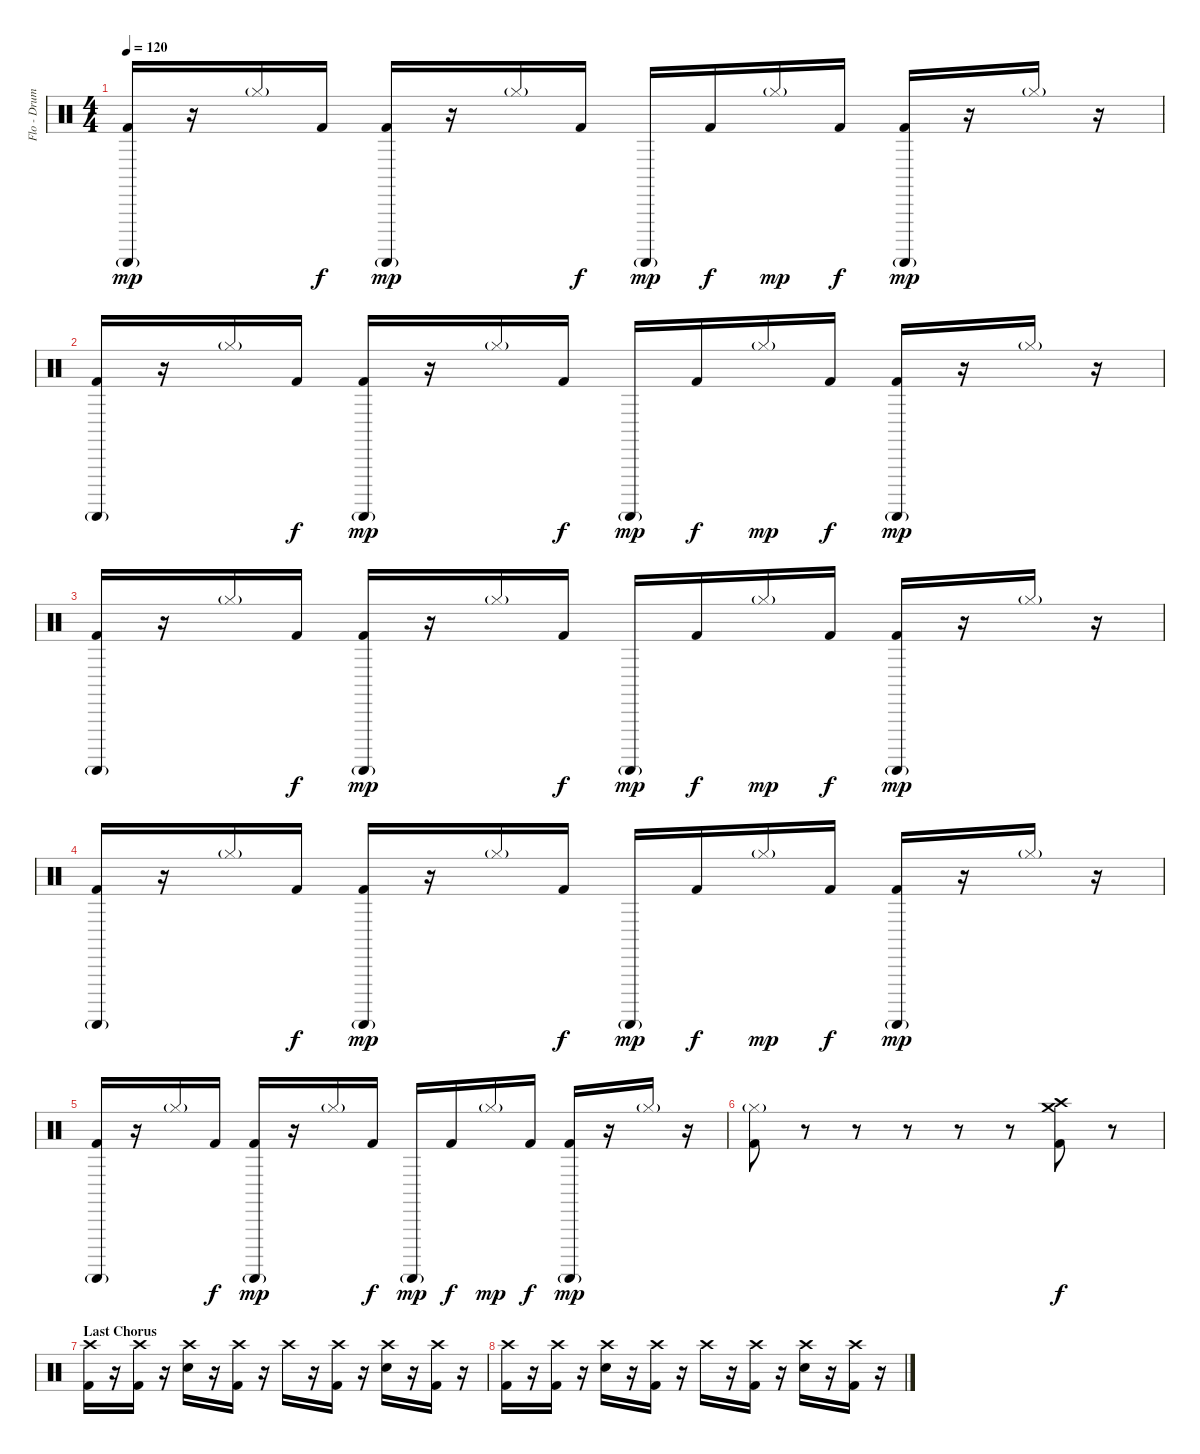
\track ("Flo - Drums" "Flo - Drum") {instrument percussion}
\staff {score}
\articulation defaults
\ts (4 4)
\tempo 120
\clef neutral
\ks c
("Guiro (scrap-return)"{g} "Kick (hit) 2").16{dy mp} r.16 "Hi-Hat (closed)"{g}.16 "Kick (hit) 2".16{dy f} ("Guiro (scrap-return)"{g} "Kick (hit) 2").16{dy mp} r.16 "Hi-Hat (closed)"{g}.16 "Kick (hit) 2".16{dy f} "Guiro (scrap-return)"{g}.16{dy mp} "Kick (hit) 2".16{dy f} "Hi-Hat (closed)"{g}.16{dy mp} "Kick (hit) 2".16{dy f} ("Guiro (scrap-return)"{g} "Kick (hit) 2").16{dy mp} r.16 "Hi-Hat (closed)"{g}.16 r.16 |
("Guiro (scrap-return)"{g} "Kick (hit) 2").16 r.16 "Hi-Hat (closed)"{g}.16 "Kick (hit) 2".16{dy f} ("Guiro (scrap-return)"{g} "Kick (hit) 2").16{dy mp} r.16 "Hi-Hat (closed)"{g}.16 "Kick (hit) 2".16{dy f} "Guiro (scrap-return)"{g}.16{dy mp} "Kick (hit) 2".16{dy f} "Hi-Hat (closed)"{g}.16{dy mp} "Kick (hit) 2".16{dy f} ("Guiro (scrap-return)"{g} "Kick (hit) 2").16{dy mp} r.16 "Hi-Hat (closed)"{g}.16 r.16 |
("Guiro (scrap-return)"{g} "Kick (hit) 2").16 r.16 "Hi-Hat (closed)"{g}.16 "Kick (hit) 2".16{dy f} ("Guiro (scrap-return)"{g} "Kick (hit) 2").16{dy mp} r.16 "Hi-Hat (closed)"{g}.16 "Kick (hit) 2".16{dy f} "Guiro (scrap-return)"{g}.16{dy mp} "Kick (hit) 2".16{dy f} "Hi-Hat (closed)"{g}.16{dy mp} "Kick (hit) 2".16{dy f} ("Guiro (scrap-return)"{g} "Kick (hit) 2").16{dy mp} r.16 "Hi-Hat (closed)"{g}.16 r.16 |
("Guiro (scrap-return)"{g} "Kick (hit) 2").16 r.16 "Hi-Hat (closed)"{g}.16 "Kick (hit) 2".16{dy f} ("Guiro (scrap-return)"{g} "Kick (hit) 2").16{dy mp} r.16 "Hi-Hat (closed)"{g}.16 "Kick (hit) 2".16{dy f} "Guiro (scrap-return)"{g}.16{dy mp} "Kick (hit) 2".16{dy f} "Hi-Hat (closed)"{g}.16{dy mp} "Kick (hit) 2".16{dy f} ("Guiro (scrap-return)"{g} "Kick (hit) 2").16{dy mp} r.16 "Hi-Hat (closed)"{g}.16 r.16 |
("Guiro (scrap-return)"{g} "Kick (hit) 2").16 r.16 "Hi-Hat (closed)"{g}.16 "Kick (hit) 2".16{dy f} ("Guiro (scrap-return)"{g} "Kick (hit) 2").16{dy mp} r.16 "Hi-Hat (closed)"{g}.16 "Kick (hit) 2".16{dy f} "Guiro (scrap-return)"{g}.16{dy mp} "Kick (hit) 2".16{dy f} "Hi-Hat (closed)"{g}.16{dy mp} "Kick (hit) 2".16{dy f} ("Guiro (scrap-return)"{g} "Kick (hit) 2").16{dy mp} r.16 "Hi-Hat (closed)"{g}.16 r.16 |
("Hi-Hat (closed)"{g} "Kick (hit) 2").8 r.8 r.8 r.8 r.8 r.8 ("Crash medium (hit)" "Crash high (hit)" "Kick (hit) 2").8{dy f} r.8 |
\section ("" "Last Chorus")
("Crash high (hit)" "Kick (hit) 2").16 r.16 ("Crash high (hit)" "Kick (hit) 2").16 r.16 ("Crash high (hit)" "Electric Snare (hit)").16 r.16 ("Crash high (hit)" "Kick (hit) 2").16 r.16 "Crash high (hit)".16 r.16 ("Crash high (hit)" "Kick (hit) 2").16 r.16 ("Crash high (hit)" "Electric Snare (hit)").16 r.16 ("Crash high (hit)" "Kick (hit) 2").16 r.16 |
("Crash high (hit)" "Kick (hit) 2").16 r.16 ("Crash high (hit)" "Kick (hit) 2").16 r.16 ("Crash high (hit)" "Electric Snare (hit)").16 r.16 ("Crash high (hit)" "Kick (hit) 2").16 r.16 "Crash high (hit)".16 r.16 ("Crash high (hit)" "Kick (hit) 2").16 r.16 ("Crash high (hit)" "Electric Snare (hit)").16 r.16 ("Crash high (hit)" "Kick (hit) 2").16 r.16
